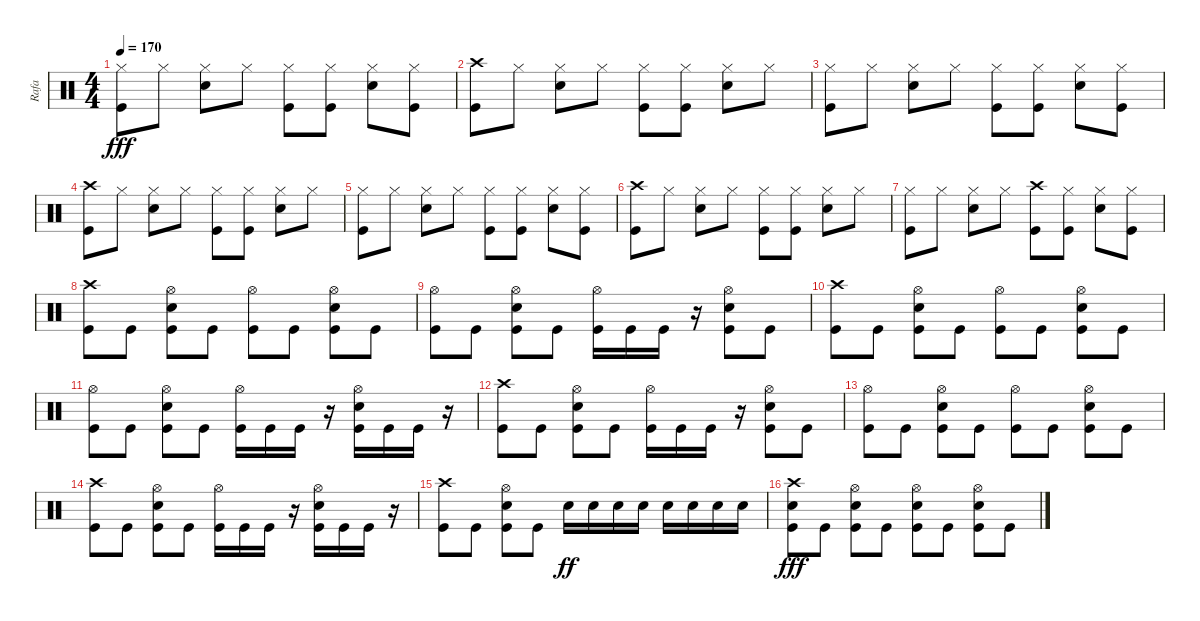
\track ("Rafa" "Rafa") {instrument percussion}
\staff {score}
\articulation defaults
\ts (4 4)
\tempo 170
\clef neutral
\ks c
("Hi-Hat (closed)" "Kick (hit)").8{dy fff} "Hi-Hat (closed)".8 ("Hi-Hat (closed)" "Electric Snare (hit)").8 "Hi-Hat (closed)".8 ("Hi-Hat (closed)" "Kick (hit)").8 ("Hi-Hat (closed)" "Kick (hit)").8 ("Hi-Hat (closed)" "Electric Snare (hit)").8 ("Hi-Hat (closed)" "Kick (hit)").8 |
("Crash high (hit)" "Kick (hit)").8 "Hi-Hat (closed)".8 ("Hi-Hat (closed)" "Electric Snare (hit)").8 "Hi-Hat (closed)".8 ("Hi-Hat (closed)" "Kick (hit)").8 ("Hi-Hat (closed)" "Kick (hit)").8 ("Hi-Hat (closed)" "Electric Snare (hit)").8 "Hi-Hat (closed)".8 |
("Hi-Hat (closed)" "Kick (hit)").8 "Hi-Hat (closed)".8 ("Hi-Hat (closed)" "Electric Snare (hit)").8 "Hi-Hat (closed)".8 ("Hi-Hat (closed)" "Kick (hit)").8 ("Hi-Hat (closed)" "Kick (hit)").8 ("Hi-Hat (closed)" "Electric Snare (hit)").8 ("Hi-Hat (closed)" "Kick (hit)").8 |
("Crash high (hit)" "Kick (hit)").8 "Hi-Hat (closed)".8 ("Hi-Hat (closed)" "Electric Snare (hit)").8 "Hi-Hat (closed)".8 ("Hi-Hat (closed)" "Kick (hit)").8 ("Hi-Hat (closed)" "Kick (hit)").8 ("Hi-Hat (closed)" "Electric Snare (hit)").8 "Hi-Hat (closed)".8 |
("Hi-Hat (closed)" "Kick (hit)").8 "Hi-Hat (closed)".8 ("Hi-Hat (closed)" "Electric Snare (hit)").8 "Hi-Hat (closed)".8 ("Hi-Hat (closed)" "Kick (hit)").8 ("Hi-Hat (closed)" "Kick (hit)").8 ("Hi-Hat (closed)" "Electric Snare (hit)").8 ("Hi-Hat (closed)" "Kick (hit)").8 |
("Crash high (hit)" "Kick (hit)").8 "Hi-Hat (closed)".8 ("Hi-Hat (closed)" "Electric Snare (hit)").8 "Hi-Hat (closed)".8 ("Hi-Hat (closed)" "Kick (hit)").8 ("Hi-Hat (closed)" "Kick (hit)").8 ("Hi-Hat (closed)" "Electric Snare (hit)").8 "Hi-Hat (closed)".8 |
("Hi-Hat (closed)" "Kick (hit)").8 "Hi-Hat (closed)".8 ("Hi-Hat (closed)" "Electric Snare (hit)").8 "Hi-Hat (closed)".8 ("Crash high (hit)" "Kick (hit)").8 ("Hi-Hat (closed)" "Kick (hit)").8 ("Hi-Hat (closed)" "Electric Snare (hit)").8 ("Hi-Hat (closed)" "Kick (hit)").8 |
("Crash high (hit)" "Kick (hit)").8 "Kick (hit)".8 ("Hi-Hat (open)" "Electric Snare (hit)" "Kick (hit)").8 "Kick (hit)".8 ("Hi-Hat (open)" "Kick (hit)").8 "Kick (hit)".8 ("Hi-Hat (open)" "Electric Snare (hit)" "Kick (hit)").8 "Kick (hit)".8 |
("Hi-Hat (open)" "Kick (hit)").8 "Kick (hit)".8 ("Hi-Hat (open)" "Electric Snare (hit)" "Kick (hit)").8 "Kick (hit)".8 ("Hi-Hat (open)" "Kick (hit)").16 "Kick (hit)".16 "Kick (hit)".16 r.16 ("Hi-Hat (open)" "Electric Snare (hit)" "Kick (hit)").8 "Kick (hit)".8 |
("Crash high (hit)" "Kick (hit)").8 "Kick (hit)".8 ("Hi-Hat (open)" "Electric Snare (hit)" "Kick (hit)").8 "Kick (hit)".8 ("Hi-Hat (open)" "Kick (hit)").8 "Kick (hit)".8 ("Hi-Hat (open)" "Electric Snare (hit)" "Kick (hit)").8 "Kick (hit)".8 |
("Hi-Hat (open)" "Kick (hit)").8 "Kick (hit)".8 ("Hi-Hat (open)" "Electric Snare (hit)" "Kick (hit)").8 "Kick (hit)".8 ("Hi-Hat (open)" "Kick (hit)").16 "Kick (hit)".16 "Kick (hit)".16 r.16 ("Hi-Hat (open)" "Electric Snare (hit)" "Kick (hit)").16 "Kick (hit)".16 "Kick (hit)".16 r.16 |
("Crash high (hit)" "Kick (hit)").8 "Kick (hit)".8 ("Hi-Hat (open)" "Electric Snare (hit)" "Kick (hit)").8 "Kick (hit)".8 ("Hi-Hat (open)" "Kick (hit)").16 "Kick (hit)".16 "Kick (hit)".16 r.16 ("Hi-Hat (open)" "Electric Snare (hit)" "Kick (hit)").8 "Kick (hit)".8 |
("Hi-Hat (open)" "Kick (hit)").8 "Kick (hit)".8 ("Hi-Hat (open)" "Electric Snare (hit)" "Kick (hit)").8 "Kick (hit)".8 ("Hi-Hat (open)" "Kick (hit)").8 "Kick (hit)".8 ("Hi-Hat (open)" "Electric Snare (hit)" "Kick (hit)").8 "Kick (hit)".8 |
("Crash high (hit)" "Kick (hit)").8 "Kick (hit)".8 ("Hi-Hat (open)" "Electric Snare (hit)" "Kick (hit)").8 "Kick (hit)".8 ("Hi-Hat (open)" "Kick (hit)").16 "Kick (hit)".16 "Kick (hit)".16 r.16 ("Hi-Hat (open)" "Electric Snare (hit)" "Kick (hit)").16 "Kick (hit)".16 "Kick (hit)".16 r.16 |
("Crash high (hit)" "Kick (hit)").8 "Kick (hit)".8 ("Hi-Hat (open)" "Electric Snare (hit)" "Kick (hit)").8 "Kick (hit)".8 "Electric Snare (hit)".16{dy ff} "Electric Snare (hit)".16 "Electric Snare (hit)".16 "Electric Snare (hit)".16 "Electric Snare (hit)".16 "Electric Snare (hit)".16 "Electric Snare (hit)".16 "Electric Snare (hit)".16 |
("Crash high (hit)" "Electric Snare (hit)" "Kick (hit)").8{dy fff} "Kick (hit)".8 ("Hi-Hat (open)" "Electric Snare (hit)" "Kick (hit)").8 "Kick (hit)".8 ("Hi-Hat (open)" "Electric Snare (hit)" "Kick (hit)").8 "Kick (hit)".8 ("Hi-Hat (open)" "Electric Snare (hit)" "Kick (hit)").8 "Kick (hit)".8
